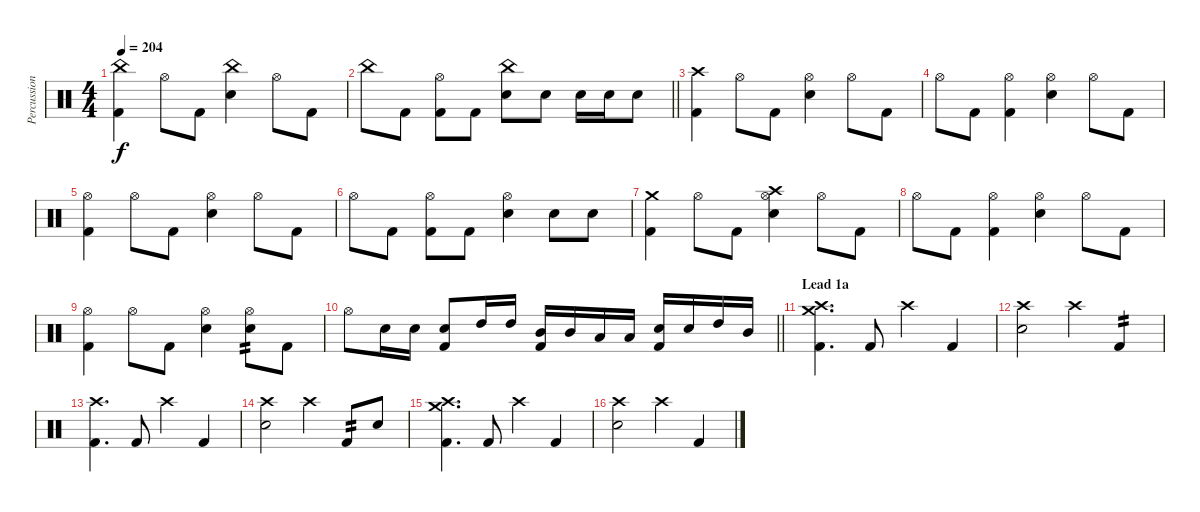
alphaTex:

\track ("Percussions" "Percussion") {instrument percussion}
\staff {score}
\articulation defaults
\ts (4 4)
\tempo 204
\clef neutral
\ks c
("China (hit)" "Kick (hit) 2").4{dy f} "Hi-Hat (open)".8 "Kick (hit) 2".8 ("China (hit)" "Electric Snare (hit)").4 "Hi-Hat (open)".8 "Kick (hit) 2".8 |
\barLineRight lightlight "China (hit)".8 "Kick (hit) 2".8
("Hi-Hat (open)" "Kick (hit) 2").8 "Kick (hit) 2".8 ("China (hit)" "Electric Snare (hit)").8 "Electric Snare (hit)".8 "Electric Snare (hit)".16 "Electric Snare (hit)".16 "Electric Snare (hit)".8 |
("Crash high (hit)" "Kick (hit) 2").4 "Hi-Hat (open)".8 "Kick (hit) 2".8 ("Hi-Hat (open)" "Electric Snare (hit)").4 "Hi-Hat (open)".8 "Kick (hit) 2".8 |
"Hi-Hat (open)".8 "Kick (hit) 2".8 ("Hi-Hat (open)" "Kick (hit) 2").4 ("Hi-Hat (open)" "Electric Snare (hit)").4 "Hi-Hat (open)".8 "Kick (hit) 2".8 |
("Hi-Hat (open)" "Kick (hit) 2").4 "Hi-Hat (open)".8 "Kick (hit) 2".8 ("Hi-Hat (open)" "Electric Snare (hit)").4 "Hi-Hat (open)".8 "Kick (hit) 2".8 |
"Hi-Hat (open)".8 "Kick (hit) 2".8 ("Hi-Hat (open)" "Kick (hit) 2").8 "Kick (hit) 2".8 ("Hi-Hat (open)" "Electric Snare (hit)").4 "Electric Snare (hit)".8 "Electric Snare (hit)".8 |
("Crash medium (hit)" "Kick (hit) 2").4 "Hi-Hat (open)".8 "Kick (hit) 2".8 ("Crash high (hit)" "Hi-Hat (open)" "Electric Snare (hit)").4 "Hi-Hat (open)".8 "Kick (hit) 2".8 |
"Hi-Hat (open)".8 "Kick (hit) 2".8 ("Hi-Hat (open)" "Kick (hit) 2").4 ("Hi-Hat (open)" "Electric Snare (hit)").4 "Hi-Hat (open)".8 "Kick (hit) 2".8 |
("Hi-Hat (open)" "Kick (hit) 2").4 "Hi-Hat (open)".8 "Kick (hit) 2".8 ("Hi-Hat (open)" "Electric Snare (hit)").4 ("Hi-Hat (open)" "Electric Snare (hit)").8{tp 2} "Kick (hit) 2".8 |
\barLineRight lightlight "Hi-Hat (open)".8 "Electric Snare (hit)".16 "Electric Snare (hit)".16
("Electric Snare (hit)" "Kick (hit) 2").8 "High Tom (hit)".16 "High Tom (hit)".16 ("Mid Tom (hit)" "Kick (hit) 2").16 "Mid Tom (hit)".16 "Low Tom (hit)".16 "Low Tom (hit)".16 ("Electric Snare (hit)" "Kick (hit) 2").16 "Electric Snare (hit)".16 "High Tom (hit)".16 "Mid Tom (hit)".16 |
\section ("" "Lead 1a")
("Crash medium (hit)" "Crash high (hit)" "Kick (hit) 2").4{d} "Kick (hit) 2".8 "Crash high (hit)".4 "Kick (hit) 2".4 |
("Crash high (hit)" "Electric Snare (hit)").2 "Crash high (hit)".4 "Kick (hit) 2".4{tp 2} |
("Crash high (hit)" "Kick (hit) 2").4{d} "Kick (hit) 2".8 "Crash high (hit)".4 "Kick (hit) 2".4 |
("Crash high (hit)" "Electric Snare (hit)").2 "Crash high (hit)".4 "Kick (hit) 2".8{tp 2} "Electric Snare (hit)".8 |
("Crash medium (hit)" "Crash high (hit)" "Kick (hit) 2").4{d} "Kick (hit) 2".8 "Crash high (hit)".4 "Kick (hit) 2".4 |
("Crash high (hit)" "Electric Snare (hit)").2 "Crash high (hit)".4 "Kick (hit) 2".4
